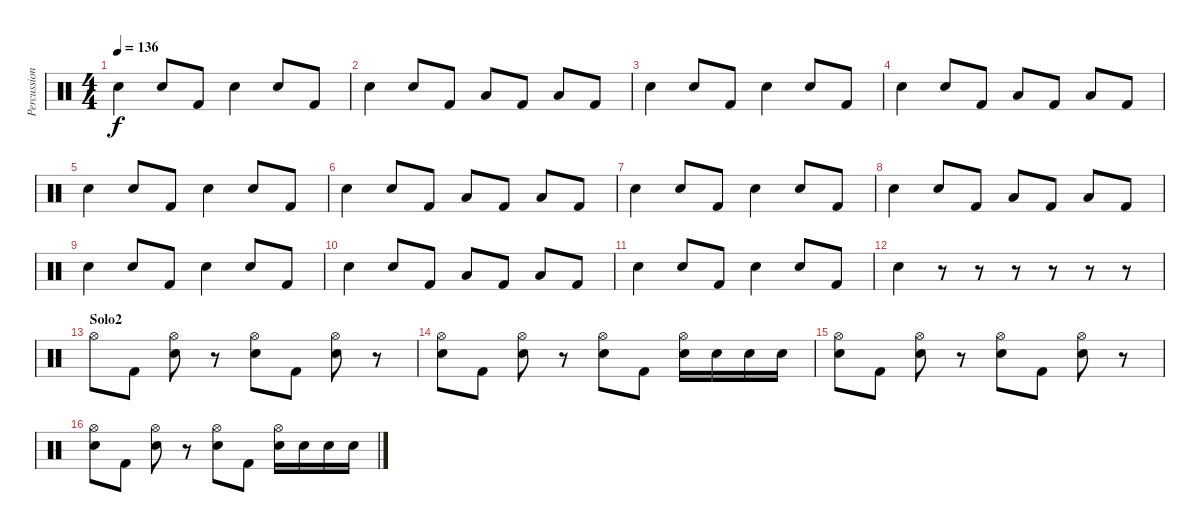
\track ("Percussions" "Percussion") {instrument percussion}
\staff {score}
\articulation defaults
\ts (4 4)
\tempo 136
\clef neutral
\ks c "Snare (hit) 2".4{dy f} "Snare (hit) 2".8 "Kick (hit) 2".8 "Snare (hit) 2".4 "Snare (hit) 2".8 "Kick (hit) 2".8
|
"Snare (hit) 2".4 "Snare (hit) 2".8 "Kick (hit) 2".8 "Low Tom (hit)".8 "Kick (hit) 2".8 "Low Floor Tom (hit)".8 "Kick (hit) 2".8 |
"Snare (hit) 2".4 "Snare (hit) 2".8 "Kick (hit) 2".8 "Snare (hit) 2".4 "Snare (hit) 2".8 "Kick (hit) 2".8 |
"Snare (hit) 2".4 "Snare (hit) 2".8 "Kick (hit) 2".8 "Low Tom (hit)".8 "Kick (hit) 2".8 "Low Floor Tom (hit)".8 "Kick (hit) 2".8 |
"Snare (hit) 2".4 "Snare (hit) 2".8 "Kick (hit) 2".8 "Snare (hit) 2".4 "Snare (hit) 2".8 "Kick (hit) 2".8 |
"Snare (hit) 2".4 "Snare (hit) 2".8 "Kick (hit) 2".8 "Low Tom (hit)".8 "Kick (hit) 2".8 "Low Floor Tom (hit)".8 "Kick (hit) 2".8 |
"Snare (hit) 2".4 "Snare (hit) 2".8 "Kick (hit) 2".8 "Snare (hit) 2".4 "Snare (hit) 2".8 "Kick (hit) 2".8 |
"Snare (hit) 2".4 "Snare (hit) 2".8 "Kick (hit) 2".8 "Low Tom (hit)".8 "Kick (hit) 2".8 "Low Floor Tom (hit)".8 "Kick (hit) 2".8 |
"Snare (hit) 2".4 "Snare (hit) 2".8 "Kick (hit) 2".8 "Snare (hit) 2".4 "Snare (hit) 2".8 "Kick (hit) 2".8 |
"Snare (hit) 2".4 "Snare (hit) 2".8 "Kick (hit) 2".8 "Low Tom (hit)".8 "Kick (hit) 2".8 "Low Floor Tom (hit)".8 "Kick (hit) 2".8 |
"Snare (hit) 2".4 "Snare (hit) 2".8 "Kick (hit) 2".8 "Snare (hit) 2".4 "Snare (hit) 2".8 "Kick (hit) 2".8 |
"Snare (hit) 2".4 r.8 r.8 r.8 r.8 r.8 r.8 |
\section ("" "Solo2")
"Hi-Hat (open)".8 "Kick (hit) 2".8 ("Hi-Hat (open)" "Snare (hit) 2").8 r.8 ("Hi-Hat (open)" "Snare (hit) 2").8 "Kick (hit) 2".8 ("Hi-Hat (open)" "Snare (hit) 2").8 r.8 |
("Hi-Hat (open)" "Snare (hit) 2").8 "Kick (hit) 2".8 ("Hi-Hat (open)" "Snare (hit) 2").8 r.8 ("Hi-Hat (open)" "Snare (hit) 2").8 "Kick (hit) 2".8 ("Hi-Hat (open)" "Snare (hit) 2").16 "Snare (hit) 2".16 "Snare (hit) 2".16 "Snare (hit) 2".16 |
("Hi-Hat (open)" "Snare (hit) 2").8 "Kick (hit) 2".8 ("Hi-Hat (open)" "Snare (hit) 2").8 r.8 ("Hi-Hat (open)" "Snare (hit) 2").8 "Kick (hit) 2".8 ("Hi-Hat (open)" "Snare (hit) 2").8 r.8 |
("Hi-Hat (open)" "Snare (hit) 2").8 "Kick (hit) 2".8 ("Hi-Hat (open)" "Snare (hit) 2").8 r.8 ("Hi-Hat (open)" "Snare (hit) 2").8 "Kick (hit) 2".8 ("Hi-Hat (open)" "Snare (hit) 2").16 "Snare (hit) 2".16 "Snare (hit) 2".16 "Snare (hit) 2".16
